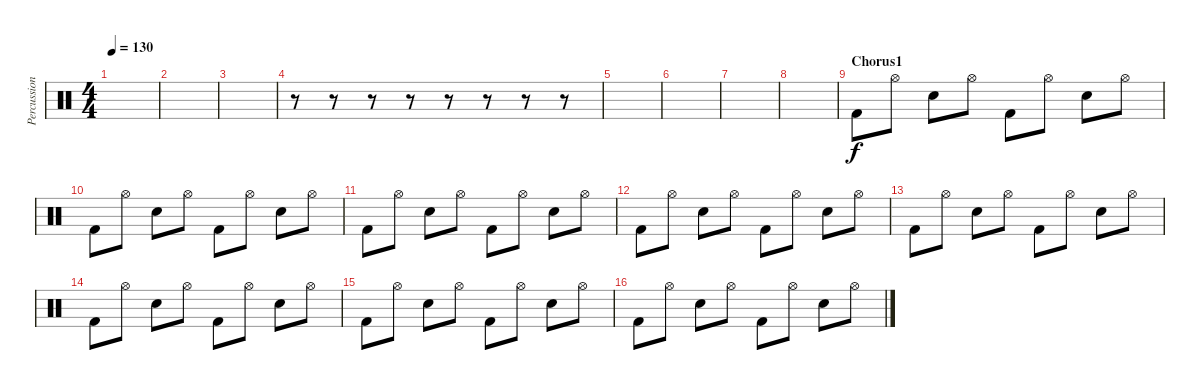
\track ("Percussion" "Percussion") {instrument percussion}
\staff {score}
\articulation defaults
\ts (4 4)
\tempo 130
\clef neutral
\ks c
|
|
|
r.8 r.8 r.8 r.8 r.8 r.8 r.8 r.8 |
|
|
|
|
\section ("" "Chorus1")
"Kick (hit) 2".8 "Hi-Hat (open)".8 "Electric Snare (hit)".8 "Hi-Hat (open)".8 "Kick (hit) 2".8 "Hi-Hat (open)".8 "Electric Snare (hit)".8 "Hi-Hat (open)".8 |
"Kick (hit) 2".8 "Hi-Hat (open)".8 "Electric Snare (hit)".8 "Hi-Hat (open)".8 "Kick (hit) 2".8 "Hi-Hat (open)".8 "Electric Snare (hit)".8 "Hi-Hat (open)".8 |
"Kick (hit) 2".8 "Hi-Hat (open)".8 "Electric Snare (hit)".8 "Hi-Hat (open)".8 "Kick (hit) 2".8 "Hi-Hat (open)".8 "Electric Snare (hit)".8 "Hi-Hat (open)".8 |
"Kick (hit) 2".8 "Hi-Hat (open)".8 "Electric Snare (hit)".8 "Hi-Hat (open)".8 "Kick (hit) 2".8 "Hi-Hat (open)".8 "Electric Snare (hit)".8 "Hi-Hat (open)".8 |
"Kick (hit) 2".8 "Hi-Hat (open)".8 "Electric Snare (hit)".8 "Hi-Hat (open)".8 "Kick (hit) 2".8 "Hi-Hat (open)".8 "Electric Snare (hit)".8 "Hi-Hat (open)".8 |
"Kick (hit) 2".8 "Hi-Hat (open)".8 "Electric Snare (hit)".8 "Hi-Hat (open)".8 "Kick (hit) 2".8 "Hi-Hat (open)".8 "Electric Snare (hit)".8 "Hi-Hat (open)".8 |
"Kick (hit) 2".8 "Hi-Hat (open)".8 "Electric Snare (hit)".8 "Hi-Hat (open)".8 "Kick (hit) 2".8 "Hi-Hat (open)".8 "Electric Snare (hit)".8 "Hi-Hat (open)".8 |
"Kick (hit) 2".8 "Hi-Hat (open)".8 "Electric Snare (hit)".8 "Hi-Hat (open)".8 "Kick (hit) 2".8 "Hi-Hat (open)".8 "Electric Snare (hit)".8 "Hi-Hat (open)".8
